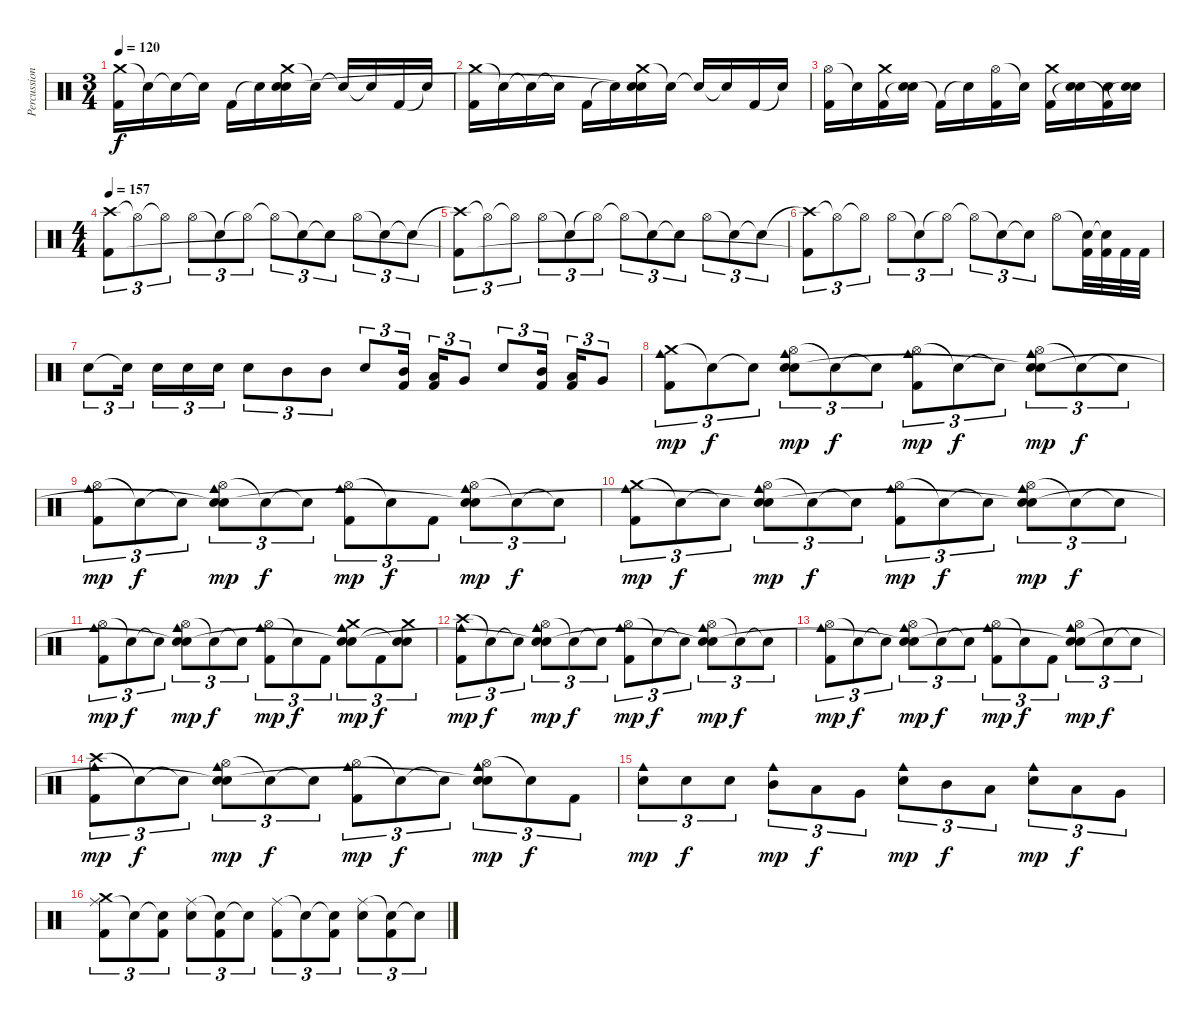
\track ("Percussions" "Percussion") {instrument percussion}
\staff {score}
\articulation defaults
\ts (3 4)
\tempo 120
\clef neutral
\ks c
("Crash medium (hit)" "Kick (hit) 2").16{dy f} "Snare (hit)"{t}.16 "Snare (hit)"{t}.16 "Snare (hit)"{t}.16 "Kick (hit) 2".16 "Snare (hit)"{t}.16 ("Crash medium (hit)" "Electric Snare (hit)" "Snare (hit)"{t}).16 "Snare (hit)"{t}.16 "Snare (hit)"{t}.16 "Snare (hit)"{t}.16 "Kick (hit) 2".16 "Snare (hit)"{t}.16 |
("Crash medium (hit)" "Kick (hit) 2").16 "Snare (hit)"{t}.16 "Snare (hit)"{t}.16 "Snare (hit)"{t}.16 "Kick (hit) 2".16 "Snare (hit)"{t}.16 ("Crash medium (hit)" "Electric Snare (hit)" "Snare (hit)"{t}).16 "Snare (hit)"{t}.16 "Snare (hit)"{t}.16 "Snare (hit)"{t}.16 "Kick (hit) 2".16 "Snare (hit)"{t}.16 |
("Hi-Hat (open)" "Kick (hit) 2").16 "Snare (hit)"{t}.16 ("Crash medium (hit)" "Kick (hit) 2").16 ("Electric Snare (hit)" "Snare (hit)"{t}).16 "Kick (hit) 2"{t}.16 "Snare (hit)"{t}.16 ("Hi-Hat (open)" "Kick (hit) 2").16 "Snare (hit)"{t}.16 ("Crash medium (hit)" "Kick (hit) 2").16 ("Electric Snare (hit)" "Snare (hit)"{t}).16 ("Electric Snare (hit)" "Kick (hit) 2"{t}).16 ("Electric Snare (hit)" "Snare (hit)"{t}).16 |
\ts (4 4)
\tempo 157
("Crash high (hit)" "Kick (hit) 2").8{tu (3 2)} "Hi-Hat (open)"{t}.8{tu (3 2)} "Hi-Hat (open)"{t}.8{tu (3 2)} "Hi-Hat (open)".8{tu (3 2)} "Snare (hit)"{t}.8{tu (3 2)} "Hi-Hat (open)"{t}.8{tu (3 2)} "Hi-Hat (open)"{t}.8{tu (3 2)} "Snare (hit)"{t}.8{tu (3 2)} "Snare (hit)"{t}.8{tu (3 2)} "Hi-Hat (open)".8{tu (3 2)} "Snare (hit)"{t}.8{tu (3 2)} "Snare (hit)"{t}.8{tu (3 2)} |
("Crash high (hit)"{t} "Kick (hit) 2"{t}).8{tu (3 2)} "Hi-Hat (open)"{t}.8{tu (3 2)} "Hi-Hat (open)"{t}.8{tu (3 2)} "Hi-Hat (open)".8{tu (3 2)} "Snare (hit)"{t}.8{tu (3 2)} "Hi-Hat (open)"{t}.8{tu (3 2)} "Hi-Hat (open)"{t}.8{tu (3 2)} "Snare (hit)"{t}.8{tu (3 2)} "Snare (hit)"{t}.8{tu (3 2)} "Hi-Hat (open)".8{tu (3 2)} "Snare (hit)"{t}.8{tu (3 2)} "Snare (hit)"{t}.8{tu (3 2)} |
("Crash high (hit)"{t} "Kick (hit) 2"{t}).8{tu (3 2)} "Hi-Hat (open)"{t}.8{tu (3 2)} "Hi-Hat (open)"{t}.8{tu (3 2)} "Hi-Hat (open)".8{tu (3 2)} "Snare (hit)"{t}.8{tu (3 2)} "Hi-Hat (open)"{t}.8{tu (3 2)} "Hi-Hat (open)"{t}.8{tu (3 2)} "Snare (hit)"{t}.8{tu (3 2)} "Snare (hit)"{t}.8{tu (3 2)} "Hi-Hat (open)".8 ("Snare (hit)"{t} "Kick (hit) 2").32 ("Snare (hit)"{t} "Kick (hit) 2").32 "Kick (hit) 2".32 "Kick (hit) 2".32 |
"Electric Snare (hit)".8{tu (3 2)} "Electric Snare (hit)"{t}.16{tu (3 2) beam splitsecondary} "Electric Snare (hit)".16{tu (3 2)} "Electric Snare (hit)".16{tu (3 2)} "Electric Snare (hit)".16{tu (3 2)} "Electric Snare (hit)".8{tu (3 2)} "Mid Tom (hit)".8{tu (3 2)} "Mid Tom (hit)".8{tu (3 2)} "Electric Snare (hit)".8{tu (3 2)} ("Mid Tom (hit)" "Kick (hit) 2").16{tu (3 2) beam splitsecondary} ("Low Tom (hit)" "Kick (hit) 2").16{tu (3 2)} "Very Low Tom (hit)".8{tu (3 2)} "Electric Snare (hit)".8{tu (3 2)} ("Mid Tom (hit)" "Kick (hit) 2").16{tu (3 2) beam splitsecondary} ("Low Tom (hit)" "Kick (hit) 2").16{tu (3 2)} "Very Low Tom (hit)".8{tu (3 2)} |
("Crash medium (hit)" "Cowbell medium (hit)" "Kick (hit) 2").8{tu (3 2) dy mp} "Snare (hit)"{t}.8{tu (3 2) dy f} "Snare (hit)"{t}.8{tu (3 2)} ("Hi-Hat (open)" "Cowbell medium (hit)" "Electric Snare (hit)" "Snare (hit)").8{tu (3 2) dy mp} "Snare (hit)"{t}.8{tu (3 2) dy f} "Snare (hit)"{t}.8{tu (3 2)} ("Hi-Hat (open)" "Cowbell medium (hit)" "Kick (hit) 2").8{tu (3 2) dy mp} "Snare (hit)"{t}.8{tu (3 2) dy f} "Snare (hit)"{t}.8{tu (3 2)} ("Hi-Hat (open)" "Cowbell medium (hit)" "Electric Snare (hit)" "Snare (hit)"{t}).8{tu (3 2) dy mp} "Snare (hit)"{t}.8{tu (3 2) dy f} "Snare (hit)"{t}.8{tu (3 2)} |
("Hi-Hat (open)" "Cowbell medium (hit)" "Kick (hit) 2").8{tu (3 2) dy mp} "Snare (hit)"{t}.8{tu (3 2) dy f} "Snare (hit)"{t}.8{tu (3 2)} ("Hi-Hat (open)" "Cowbell medium (hit)" "Electric Snare (hit)" "Snare (hit)"{t}).8{tu (3 2) dy mp} "Snare (hit)"{t}.8{tu (3 2) dy f} "Snare (hit)"{t}.8{tu (3 2)} ("Hi-Hat (open)" "Cowbell medium (hit)" "Kick (hit) 2").8{tu (3 2) dy mp} "Snare (hit)"{t}.8{tu (3 2) dy f} "Kick (hit) 2".8{tu (3 2)} ("Hi-Hat (open)" "Cowbell medium (hit)" "Electric Snare (hit)" "Snare (hit)"{t}).8{tu (3 2) dy mp} "Snare (hit)"{t}.8{tu (3 2) dy f} "Snare (hit)"{t}.8{tu (3 2)} |
("Crash medium (hit)" "Cowbell medium (hit)" "Kick (hit) 2").8{tu (3 2) dy mp} "Snare (hit)"{t}.8{tu (3 2) dy f} "Snare (hit)"{t}.8{tu (3 2)} ("Hi-Hat (open)" "Cowbell medium (hit)" "Electric Snare (hit)" "Snare (hit)"{t}).8{tu (3 2) dy mp} "Snare (hit)"{t}.8{tu (3 2) dy f} "Snare (hit)"{t}.8{tu (3 2)} ("Hi-Hat (open)" "Cowbell medium (hit)" "Kick (hit) 2").8{tu (3 2) dy mp} "Snare (hit)"{t}.8{tu (3 2) dy f} "Snare (hit)"{t}.8{tu (3 2)} ("Hi-Hat (open)" "Cowbell medium (hit)" "Electric Snare (hit)" "Snare (hit)"{t}).8{tu (3 2) dy mp} "Snare (hit)"{t}.8{tu (3 2) dy f} "Snare (hit)"{t}.8{tu (3 2)} |
("Hi-Hat (open)" "Cowbell medium (hit)" "Kick (hit) 2").8{tu (3 2) dy mp} "Snare (hit)"{t}.8{tu (3 2) dy f} "Snare (hit)"{t}.8{tu (3 2)} ("Hi-Hat (open)" "Cowbell medium (hit)" "Electric Snare (hit)" "Snare (hit)"{t}).8{tu (3 2) dy mp} "Snare (hit)"{t}.8{tu (3 2) dy f} "Snare (hit)"{t}.8{tu (3 2)} ("Hi-Hat (open)" "Cowbell medium (hit)" "Kick (hit) 2").8{tu (3 2) dy mp} "Snare (hit)"{t}.8{tu (3 2) dy f} "Kick (hit) 2".8{tu (3 2)} ("Crash medium (hit)" "Cowbell medium (hit)" "Electric Snare (hit)" "Snare (hit)"{t}).8{tu (3 2) dy mp} "Kick (hit) 2".8{tu (3 2) dy f} ("Crash medium (hit)" "Electric Snare (hit)" "Snare (hit)"{t}).8{tu (3 2)} |
("Crash high (hit)" "Cowbell medium (hit)" "Kick (hit) 2").8{tu (3 2) dy mp} "Snare (hit)"{t}.8{tu (3 2) dy f} "Snare (hit)"{t}.8{tu (3 2)} ("Hi-Hat (open)" "Cowbell medium (hit)" "Electric Snare (hit)" "Snare (hit)"{t}).8{tu (3 2) dy mp} "Snare (hit)"{t}.8{tu (3 2) dy f} "Snare (hit)"{t}.8{tu (3 2)} ("Hi-Hat (open)" "Cowbell medium (hit)" "Kick (hit) 2").8{tu (3 2) dy mp} "Snare (hit)"{t}.8{tu (3 2) dy f} "Snare (hit)"{t}.8{tu (3 2)} ("Hi-Hat (open)" "Cowbell medium (hit)" "Electric Snare (hit)" "Snare (hit)"{t}).8{tu (3 2) dy mp} "Snare (hit)"{t}.8{tu (3 2) dy f} "Snare (hit)"{t}.8{tu (3 2)} |
("Hi-Hat (open)" "Cowbell medium (hit)" "Kick (hit) 2").8{tu (3 2) dy mp} "Snare (hit)"{t}.8{tu (3 2) dy f} "Snare (hit)"{t}.8{tu (3 2)} ("Hi-Hat (open)" "Cowbell medium (hit)" "Electric Snare (hit)" "Snare (hit)"{t}).8{tu (3 2) dy mp} "Snare (hit)"{t}.8{tu (3 2) dy f} "Snare (hit)"{t}.8{tu (3 2)} ("Hi-Hat (open)" "Cowbell medium (hit)" "Kick (hit) 2").8{tu (3 2) dy mp} "Snare (hit)"{t}.8{tu (3 2) dy f} "Kick (hit) 2".8{tu (3 2)} ("Hi-Hat (open)" "Cowbell medium (hit)" "Electric Snare (hit)" "Snare (hit)"{t}).8{tu (3 2) dy mp} "Snare (hit)"{t}.8{tu (3 2) dy f} "Snare (hit)"{t}.8{tu (3 2)} |
("Crash high (hit)" "Cowbell medium (hit)" "Kick (hit) 2").8{tu (3 2) dy mp} "Snare (hit)"{t}.8{tu (3 2) dy f} "Snare (hit)"{t}.8{tu (3 2)} ("Hi-Hat (open)" "Cowbell medium (hit)" "Electric Snare (hit)" "Snare (hit)"{t}).8{tu (3 2) dy mp} "Snare (hit)"{t}.8{tu (3 2) dy f} "Snare (hit)"{t}.8{tu (3 2)} ("Hi-Hat (open)" "Cowbell medium (hit)" "Kick (hit) 2").8{tu (3 2) dy mp} "Snare (hit)"{t}.8{tu (3 2) dy f} "Snare (hit)"{t}.8{tu (3 2)} ("Hi-Hat (open)" "Cowbell medium (hit)" "Electric Snare (hit)" "Snare (hit)"{t}).8{tu (3 2) dy mp} "Snare (hit)"{t}.8{tu (3 2) dy f} "Kick (hit) 2".8{tu (3 2)} |
("Cowbell medium (hit)" "Electric Snare (hit)").8{tu (3 2) dy mp} "Electric Snare (hit)".8{tu (3 2) dy f} "Electric Snare (hit)".8{tu (3 2)} ("Cowbell medium (hit)" "Mid Tom (hit)").8{tu (3 2) dy mp} "Low Tom (hit)".8{tu (3 2) dy f} "Very Low Tom (hit)".8{tu (3 2)} ("Cowbell medium (hit)" "Electric Snare (hit)").8{tu (3 2) dy mp} "Mid Tom (hit)".8{tu (3 2) dy f} "Low Tom (hit)".8{tu (3 2)} ("Cowbell medium (hit)" "Electric Snare (hit)").8{tu (3 2) dy mp} "Low Tom (hit)".8{tu (3 2) dy f} "Very Low Tom (hit)".8{tu (3 2)} |
("Ride (middle)" "Crash medium (hit)" "Kick (hit) 2").8{tu (3 2)} "Snare (hit)"{t}.8{tu (3 2)} ("Snare (hit)"{t} "Kick (hit) 2").8{tu (3 2)} ("Ride (middle)" "Electric Snare (hit)").8{tu (3 2)} ("Snare (hit)"{t} "Kick (hit) 2").8{tu (3 2)} "Snare (hit)"{t}.8{tu (3 2)} ("Ride (middle)" "Kick (hit) 2").8{tu (3 2)} "Snare (hit)"{t}.8{tu (3 2)} ("Snare (hit)"{t} "Kick (hit) 2").8{tu (3 2)} ("Ride (middle)" "Electric Snare (hit)").8{tu (3 2)} ("Snare (hit)"{t} "Kick (hit) 2").8{tu (3 2)} "Snare (hit)"{t}.8{tu (3 2)}
